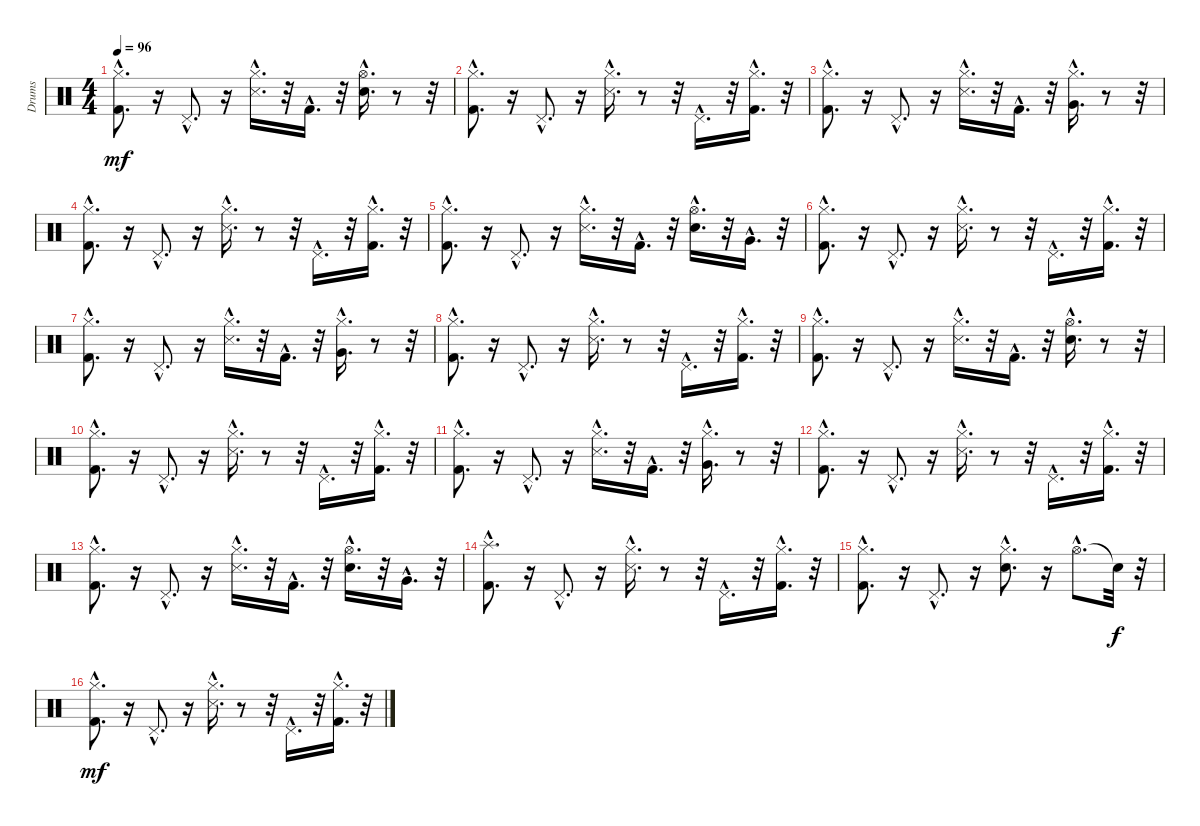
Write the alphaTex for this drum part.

\track ("Drums" "Drums") {instrument percussion}
\staff {score}
\articulation defaults
\ts (4 4)
\tempo 96
\clef neutral
\ks c
("Hi-Hat (closed)"{hac} "Kick (hit) 2"{hac}).8{d dy mf} r.16 "Pedal Hi-Hat (hit)"{hac}.8{d} r.16 ("Snare (side stick) 3"{hac} "Hi-Hat (closed)"{hac}).16{d} r.32 "Kick (hit) 2"{hac}.16{d} r.32 ("Hi-Hat (open)"{hac} "Snare (hit) 2"{hac}).16{d} r.8 r.32 |
("Kick (hit) 2"{hac} "Hi-Hat (closed)"{hac}).8{d} r.16 "Pedal Hi-Hat (hit)"{hac}.8{d} r.16 ("Hi-Hat (closed)"{hac} "Snare (side stick) 3"{hac}).16{d} r.8 r.32 "Pedal Hi-Hat (hit)"{hac}.16{d} r.32 ("Kick (hit) 2"{hac} "Hi-Hat (closed)"{hac}).16{d} r.32 |
("Kick (hit) 2"{hac} "Hi-Hat (closed)"{hac}).8{d} r.16 "Pedal Hi-Hat (hit)"{hac}.8{d} r.16 ("Hi-Hat (closed)"{hac} "Snare (side stick) 3"{hac}).16{d} r.32 "Kick (hit) 2"{hac}.16{d} r.32 ("Hi-Hat (closed)"{hac} "Very Low Tom (hit)"{hac}).16{d} r.8 r.32 |
("Kick (hit) 2"{hac} "Hi-Hat (closed)"{hac}).8{d} r.16 "Pedal Hi-Hat (hit)"{hac}.8{d} r.16 ("Snare (side stick) 3"{hac} "Hi-Hat (closed)"{hac}).16{d} r.8 r.32 "Pedal Hi-Hat (hit)"{hac}.16{d} r.32 ("Hi-Hat (closed)"{hac} "Kick (hit) 2"{hac}).16{d} r.32 |
("Kick (hit) 2"{hac} "Hi-Hat (closed)"{hac}).8{d} r.16 "Pedal Hi-Hat (hit)"{hac}.8{d} r.16 ("Hi-Hat (closed)"{hac} "Snare (side stick) 3"{hac}).16{d} r.32 "Kick (hit) 2"{hac}.16{d} r.32 ("Snare (hit) 2"{hac} "Hi-Hat (open)"{hac}).16{d} r.32 "Very Low Tom (hit)"{hac}.16{d} r.32 |
("Kick (hit) 2"{hac} "Hi-Hat (closed)"{hac}).8{d} r.16 "Pedal Hi-Hat (hit)"{hac}.8{d} r.16 ("Hi-Hat (closed)"{hac} "Snare (side stick) 3"{hac}).16{d} r.8 r.32 "Pedal Hi-Hat (hit)"{hac}.16{d} r.32 ("Hi-Hat (closed)"{hac} "Kick (hit) 2"{hac}).16{d} r.32 |
("Kick (hit) 2"{hac} "Hi-Hat (closed)"{hac}).8{d} r.16 "Pedal Hi-Hat (hit)"{hac}.8{d} r.16 ("Hi-Hat (closed)"{hac} "Snare (side stick) 3"{hac}).16{d} r.32 "Kick (hit) 2"{hac}.16{d} r.32 ("Very Low Tom (hit)"{hac} "Hi-Hat (closed)"{hac}).16{d} r.8 r.32 |
("Kick (hit) 2"{hac} "Hi-Hat (closed)"{hac}).8{d} r.16 "Pedal Hi-Hat (hit)"{hac}.8{d} r.16 ("Snare (side stick) 3"{hac} "Hi-Hat (closed)"{hac}).16{d} r.8 r.32 "Pedal Hi-Hat (hit)"{hac}.16{d} r.32 ("Kick (hit) 2"{hac} "Hi-Hat (closed)"{hac}).16{d} r.32 |
("Hi-Hat (closed)"{hac} "Kick (hit) 2"{hac}).8{d} r.16 "Pedal Hi-Hat (hit)"{hac}.8{d} r.16 ("Hi-Hat (closed)"{hac} "Snare (side stick) 3"{hac}).16{d} r.32 "Kick (hit) 2"{hac}.16{d} r.32 ("Hi-Hat (open)"{hac} "Snare (hit) 2"{hac}).16{d} r.8 r.32 |
("Kick (hit) 2"{hac} "Hi-Hat (closed)"{hac}).8{d} r.16 "Pedal Hi-Hat (hit)"{hac}.8{d} r.16 ("Snare (side stick) 3"{hac} "Hi-Hat (closed)"{hac}).16{d} r.8 r.32 "Pedal Hi-Hat (hit)"{hac}.16{d} r.32 ("Kick (hit) 2"{hac} "Hi-Hat (closed)"{hac}).16{d} r.32 |
("Hi-Hat (closed)"{hac} "Kick (hit) 2"{hac}).8{d} r.16 "Pedal Hi-Hat (hit)"{hac}.8{d} r.16 ("Hi-Hat (closed)"{hac} "Snare (side stick) 3"{hac}).16{d} r.32 "Kick (hit) 2"{hac}.16{d} r.32 ("Very Low Tom (hit)"{hac} "Hi-Hat (closed)"{hac}).16{d} r.8 r.32 |
("Hi-Hat (closed)"{hac} "Kick (hit) 2"{hac}).8{d} r.16 "Pedal Hi-Hat (hit)"{hac}.8{d} r.16 ("Snare (side stick) 3"{hac} "Hi-Hat (closed)"{hac}).16{d} r.8 r.32 "Pedal Hi-Hat (hit)"{hac}.16{d} r.32 ("Kick (hit) 2"{hac} "Hi-Hat (closed)"{hac}).16{d} r.32 |
("Hi-Hat (closed)"{hac} "Kick (hit) 2"{hac}).8{d} r.16 "Pedal Hi-Hat (hit)"{hac}.8{d} r.16 ("Snare (side stick) 3"{hac} "Hi-Hat (closed)"{hac}).16{d} r.32 "Kick (hit) 2"{hac}.16{d} r.32 ("Snare (hit) 2"{hac} "Hi-Hat (open)"{hac}).16{d} r.32 "Very Low Tom (hit)"{hac}.16{d} r.32 |
("Splash (hit)"{hac} "Kick (hit) 2"{hac}).8{d} r.16 "Pedal Hi-Hat (hit)"{hac}.8{d} r.16 ("Hi-Hat (closed)"{hac} "Snare (side stick) 3"{hac}).16{d} r.8 r.32 "Pedal Hi-Hat (hit)"{hac}.16{d} r.32 ("Kick (hit) 2"{hac} "Hi-Hat (closed)"{hac}).16{d} r.32 |
("Hi-Hat (closed)"{hac} "Kick (hit) 2"{hac}).8{d} r.16 "Pedal Hi-Hat (hit)"{hac}.8{d} r.16 ("Snare (hit) 2"{hac} "Hi-Hat (closed)"{hac}).8{d} r.16 "Hi-Hat (open)"{hac}.8{d} "Snare (hit)"{t}.32{dy f} r.32 |
("Hi-Hat (closed)"{hac} "Kick (hit) 2"{hac}).8{d dy mf} r.16 "Pedal Hi-Hat (hit)"{hac}.8{d} r.16 ("Hi-Hat (closed)"{hac} "Snare (side stick) 3"{hac}).16{d} r.8 r.32 "Pedal Hi-Hat (hit)"{hac}.16{d} r.32 ("Kick (hit) 2"{hac} "Hi-Hat (closed)"{hac}).16{d} r.32
